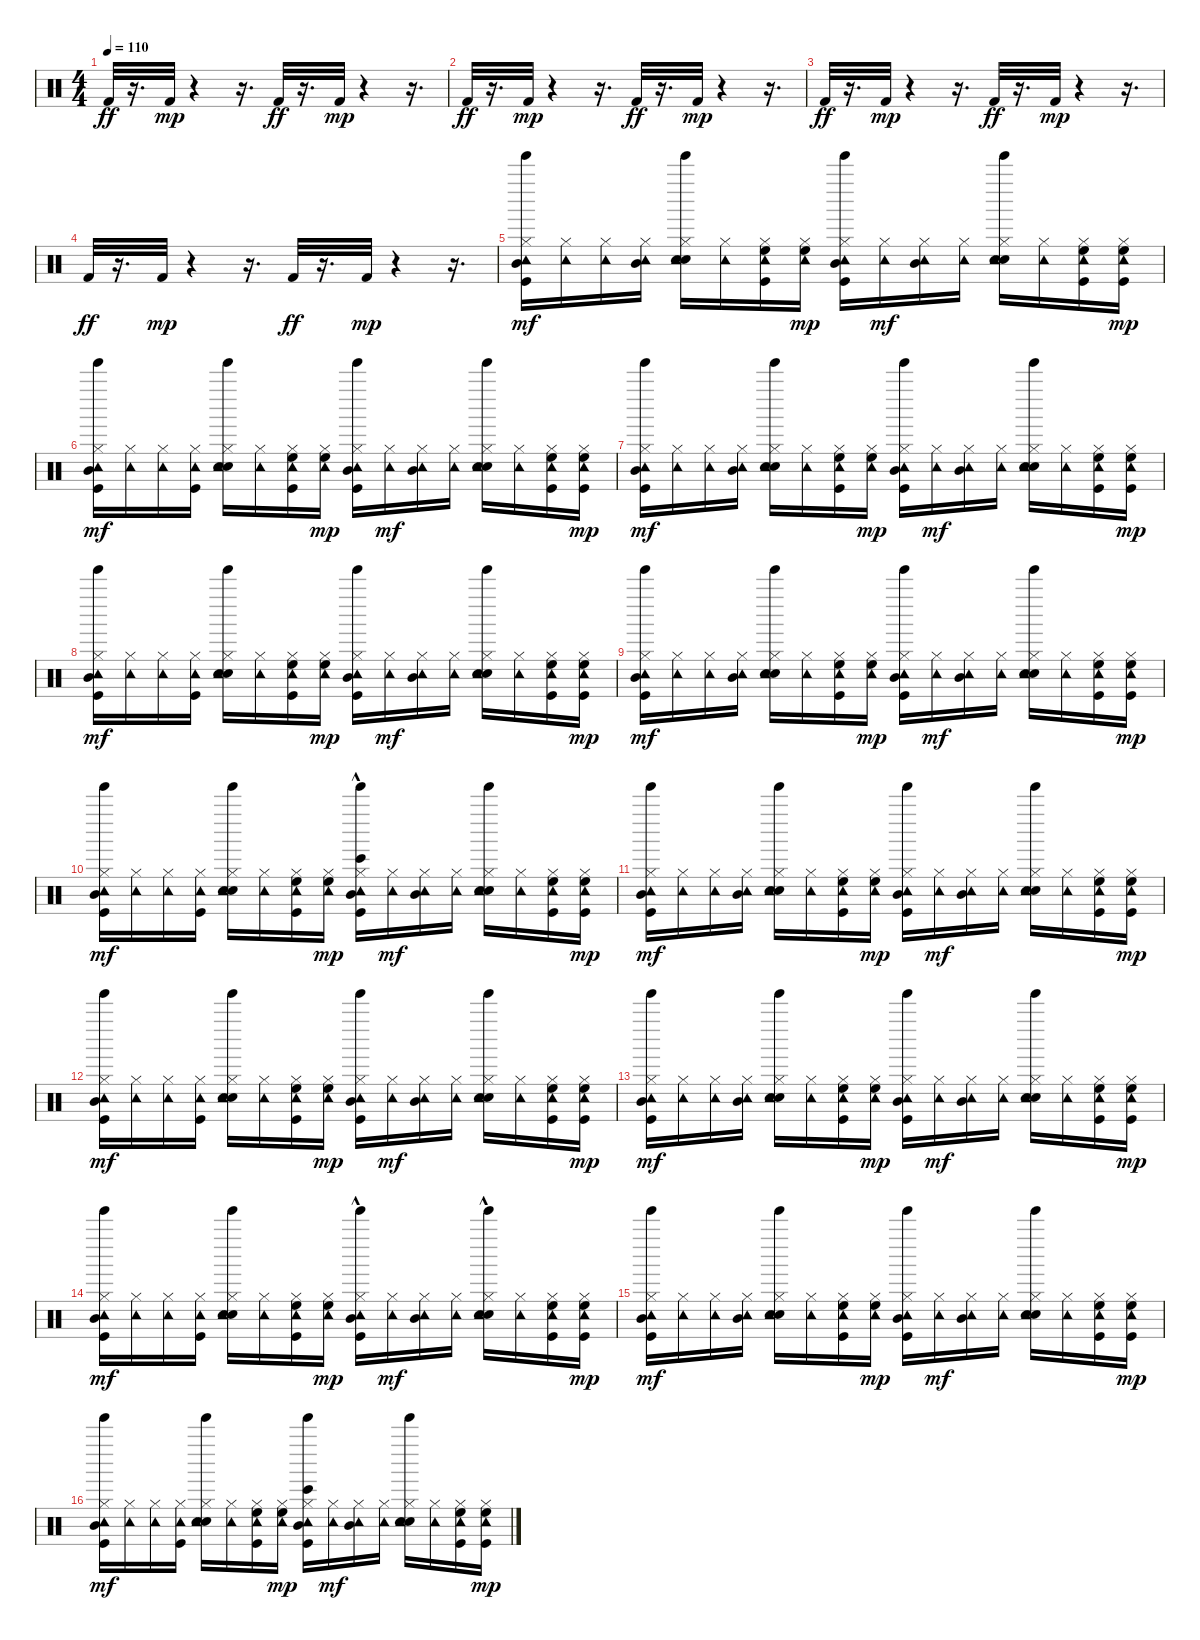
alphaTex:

\track "" {instrument percussion}
\staff {score}
\articulation defaults
\ts (4 4)
\tempo 110
\clef neutral
\ks c "Kick (hit) 2".32{dy ff}
r.16{d} "Kick (hit) 2".32{dy mp} r.4 r.16{d} "Kick (hit) 2".32{dy ff} r.16{d} "Kick (hit) 2".32{dy mp} r.4 r.16{d} |
"Kick (hit) 2".32{dy ff} r.16{d} "Kick (hit) 2".32{dy mp} r.4 r.16{d} "Kick (hit) 2".32{dy ff} r.16{d} "Kick (hit) 2".32{dy mp} r.4 r.16{d} |
"Kick (hit) 2".32{dy ff} r.16{d} "Kick (hit) 2".32{dy mp} r.4 r.16{d} "Kick (hit) 2".32{dy ff} r.16{d} "Kick (hit) 2".32{dy mp} r.4 r.16{d} |
"Kick (hit) 2".32{dy ff} r.16{d} "Kick (hit) 2".32{dy mp} r.4 r.16{d} "Kick (hit) 2".32{dy ff} r.16{d} "Kick (hit) 2".32{dy mp} r.4 r.16{d} |
("Tinkle Bell (hit)" "Kick (hit)" "Hi-Hat (closed)" "Tambourine (hit)" "Mid Tom (hit)").16{dy mf} ("Hi-Hat (closed)" "Tambourine (hit)").16 ("Hi-Hat (closed)" "Tambourine (hit)").16 ("Hi-Hat (closed)" "Tambourine (hit)" "Mid Tom (hit)").16 ("Tinkle Bell (hit)" "Electric Snare (hit)" "Hi-Hat (closed)" "Tambourine (hit)" "Hand Clap (hit)").16 ("Hi-Hat (closed)" "Tambourine (hit)").16 ("Kick (hit)" "Hi-Hat (closed)" "Tambourine (hit)" "High Floor Tom (hit)").16 ("Hi-Hat (closed)" "Tambourine (hit)" "High Floor Tom (hit)").16{dy mp} ("Tinkle Bell (hit)" "Kick (hit)" "Hi-Hat (closed)" "Tambourine (hit)" "Mid Tom (hit)").16 ("Hi-Hat (closed)" "Tambourine (hit)").16{dy mf} ("Hi-Hat (closed)" "Tambourine (hit)" "Mid Tom (hit)").16 ("Hi-Hat (closed)" "Tambourine (hit)").16 ("Tinkle Bell (hit)" "Electric Snare (hit)" "Hi-Hat (closed)" "Tambourine (hit)" "Hand Clap (hit)").16 ("Hi-Hat (closed)" "Tambourine (hit)").16 ("Kick (hit)" "Hi-Hat (closed)" "Tambourine (hit)" "High Floor Tom (hit)").16 ("Kick (hit)" "Hi-Hat (closed)" "Tambourine (hit)" "High Floor Tom (hit)").16{dy mp} |
("Tinkle Bell (hit)" "Kick (hit)" "Hi-Hat (closed)" "Tambourine (hit)" "Mid Tom (hit)").16{dy mf} ("Hi-Hat (closed)" "Tambourine (hit)").16 ("Hi-Hat (closed)" "Tambourine (hit)").16 ("Kick (hit)" "Hi-Hat (closed)" "Tambourine (hit)").16 ("Tinkle Bell (hit)" "Electric Snare (hit)" "Hi-Hat (closed)" "Tambourine (hit)" "Hand Clap (hit)").16 ("Hi-Hat (closed)" "Tambourine (hit)").16 ("Kick (hit)" "Hi-Hat (closed)" "Tambourine (hit)" "High Floor Tom (hit)").16 ("Hi-Hat (closed)" "Tambourine (hit)" "High Floor Tom (hit)").16{dy mp} ("Tinkle Bell (hit)" "Kick (hit)" "Hi-Hat (closed)" "Tambourine (hit)" "Mid Tom (hit)").16 ("Hi-Hat (closed)" "Tambourine (hit)").16{dy mf} ("Hi-Hat (closed)" "Tambourine (hit)" "Mid Tom (hit)").16 ("Hi-Hat (closed)" "Tambourine (hit)").16 ("Tinkle Bell (hit)" "Electric Snare (hit)" "Hi-Hat (closed)" "Tambourine (hit)" "Hand Clap (hit)").16 ("Hi-Hat (closed)" "Tambourine (hit)").16 ("Kick (hit)" "Hi-Hat (closed)" "Tambourine (hit)" "High Floor Tom (hit)").16 ("Kick (hit)" "Hi-Hat (closed)" "Tambourine (hit)" "High Floor Tom (hit)").16{dy mp} |
("Tinkle Bell (hit)" "Kick (hit)" "Hi-Hat (closed)" "Tambourine (hit)" "Mid Tom (hit)").16{dy mf} ("Hi-Hat (closed)" "Tambourine (hit)").16 ("Hi-Hat (closed)" "Tambourine (hit)").16 ("Hi-Hat (closed)" "Tambourine (hit)" "Mid Tom (hit)").16 ("Tinkle Bell (hit)" "Electric Snare (hit)" "Hi-Hat (closed)" "Tambourine (hit)" "Hand Clap (hit)").16 ("Hi-Hat (closed)" "Tambourine (hit)").16 ("Kick (hit)" "Hi-Hat (closed)" "Tambourine (hit)" "High Floor Tom (hit)").16 ("Hi-Hat (closed)" "Tambourine (hit)" "High Floor Tom (hit)").16{dy mp} ("Tinkle Bell (hit)" "Kick (hit)" "Hi-Hat (closed)" "Tambourine (hit)" "Mid Tom (hit)").16 ("Hi-Hat (closed)" "Tambourine (hit)").16{dy mf} ("Hi-Hat (closed)" "Tambourine (hit)" "Mid Tom (hit)").16 ("Hi-Hat (closed)" "Tambourine (hit)").16 ("Tinkle Bell (hit)" "Electric Snare (hit)" "Hi-Hat (closed)" "Tambourine (hit)" "Hand Clap (hit)").16 ("Hi-Hat (closed)" "Tambourine (hit)").16 ("Kick (hit)" "Hi-Hat (closed)" "Tambourine (hit)" "High Floor Tom (hit)").16 ("Kick (hit)" "Hi-Hat (closed)" "Tambourine (hit)" "High Floor Tom (hit)").16{dy mp} |
("Tinkle Bell (hit)" "Kick (hit)" "Hi-Hat (closed)" "Tambourine (hit)" "Mid Tom (hit)").16{dy mf} ("Hi-Hat (closed)" "Tambourine (hit)").16 ("Hi-Hat (closed)" "Tambourine (hit)").16 ("Kick (hit)" "Hi-Hat (closed)" "Tambourine (hit)").16 ("Tinkle Bell (hit)" "Electric Snare (hit)" "Hi-Hat (closed)" "Tambourine (hit)" "Hand Clap (hit)").16 ("Hi-Hat (closed)" "Tambourine (hit)").16 ("Kick (hit)" "Hi-Hat (closed)" "Tambourine (hit)" "High Floor Tom (hit)").16 ("Hi-Hat (closed)" "Tambourine (hit)" "High Floor Tom (hit)").16{dy mp} ("Tinkle Bell (hit)" "Kick (hit)" "Hi-Hat (closed)" "Tambourine (hit)" "Mid Tom (hit)").16 ("Hi-Hat (closed)" "Tambourine (hit)").16{dy mf} ("Hi-Hat (closed)" "Tambourine (hit)" "Mid Tom (hit)").16 ("Hi-Hat (closed)" "Tambourine (hit)").16 ("Tinkle Bell (hit)" "Electric Snare (hit)" "Hi-Hat (closed)" "Tambourine (hit)" "Hand Clap (hit)").16 ("Hi-Hat (closed)" "Tambourine (hit)").16 ("Kick (hit)" "Hi-Hat (closed)" "Tambourine (hit)" "High Floor Tom (hit)").16 ("Kick (hit)" "Hi-Hat (closed)" "Tambourine (hit)" "High Floor Tom (hit)").16{dy mp} |
("Tinkle Bell (hit)" "Kick (hit)" "Hi-Hat (closed)" "Tambourine (hit)" "Mid Tom (hit)").16{dy mf} ("Hi-Hat (closed)" "Tambourine (hit)").16 ("Hi-Hat (closed)" "Tambourine (hit)").16 ("Hi-Hat (closed)" "Tambourine (hit)" "Mid Tom (hit)").16 ("Tinkle Bell (hit)" "Electric Snare (hit)" "Hi-Hat (closed)" "Tambourine (hit)" "Hand Clap (hit)").16 ("Hi-Hat (closed)" "Tambourine (hit)").16 ("Kick (hit)" "Hi-Hat (closed)" "Tambourine (hit)" "High Floor Tom (hit)").16 ("Hi-Hat (closed)" "Tambourine (hit)" "High Floor Tom (hit)").16{dy mp} ("Tinkle Bell (hit)" "Kick (hit)" "Hi-Hat (closed)" "Tambourine (hit)" "Mid Tom (hit)").16 ("Hi-Hat (closed)" "Tambourine (hit)").16{dy mf} ("Hi-Hat (closed)" "Tambourine (hit)" "Mid Tom (hit)").16 ("Hi-Hat (closed)" "Tambourine (hit)").16 ("Tinkle Bell (hit)" "Electric Snare (hit)" "Hi-Hat (closed)" "Tambourine (hit)" "Hand Clap (hit)").16 ("Hi-Hat (closed)" "Tambourine (hit)").16 ("Kick (hit)" "Hi-Hat (closed)" "Tambourine (hit)" "High Floor Tom (hit)").16 ("Kick (hit)" "Hi-Hat (closed)" "Tambourine (hit)" "High Floor Tom (hit)").16{dy mp} |
("Tinkle Bell (hit)" "Kick (hit)" "Hi-Hat (closed)" "Tambourine (hit)" "Mid Tom (hit)").16{dy mf} ("Hi-Hat (closed)" "Tambourine (hit)").16 ("Hi-Hat (closed)" "Tambourine (hit)").16 ("Kick (hit)" "Hi-Hat (closed)" "Tambourine (hit)").16 ("Tinkle Bell (hit)" "Electric Snare (hit)" "Hi-Hat (closed)" "Tambourine (hit)" "Hand Clap (hit)").16 ("Hi-Hat (closed)" "Tambourine (hit)").16 ("Kick (hit)" "Hi-Hat (closed)" "Tambourine (hit)" "High Floor Tom (hit)").16 ("Hi-Hat (closed)" "Tambourine (hit)" "High Floor Tom (hit)").16{dy mp} ("Tinkle Bell (hit)"{hac} "Bongo High (hit)" "Kick (hit)" "Hi-Hat (closed)" "Tambourine (hit)" "Mid Tom (hit)").16 ("Hi-Hat (closed)" "Tambourine (hit)").16{dy mf} ("Hi-Hat (closed)" "Tambourine (hit)" "Mid Tom (hit)").16 ("Hi-Hat (closed)" "Tambourine (hit)").16 ("Tinkle Bell (hit)" "Electric Snare (hit)" "Hi-Hat (closed)" "Tambourine (hit)" "Hand Clap (hit)").16 ("Hi-Hat (closed)" "Tambourine (hit)").16 ("Kick (hit)" "Hi-Hat (closed)" "Tambourine (hit)" "High Floor Tom (hit)").16 ("Kick (hit)" "Hi-Hat (closed)" "Tambourine (hit)" "High Floor Tom (hit)").16{dy mp} |
("Tinkle Bell (hit)" "Kick (hit)" "Hi-Hat (closed)" "Tambourine (hit)" "Mid Tom (hit)").16{dy mf} ("Hi-Hat (closed)" "Tambourine (hit)").16 ("Hi-Hat (closed)" "Tambourine (hit)").16 ("Hi-Hat (closed)" "Tambourine (hit)" "Mid Tom (hit)").16 ("Tinkle Bell (hit)" "Electric Snare (hit)" "Hi-Hat (closed)" "Tambourine (hit)" "Hand Clap (hit)").16 ("Hi-Hat (closed)" "Tambourine (hit)").16 ("Kick (hit)" "Hi-Hat (closed)" "Tambourine (hit)" "High Floor Tom (hit)").16 ("Hi-Hat (closed)" "Tambourine (hit)" "High Floor Tom (hit)").16{dy mp} ("Tinkle Bell (hit)" "Kick (hit)" "Hi-Hat (closed)" "Tambourine (hit)" "Mid Tom (hit)").16 ("Hi-Hat (closed)" "Tambourine (hit)").16{dy mf} ("Hi-Hat (closed)" "Tambourine (hit)" "Mid Tom (hit)").16 ("Hi-Hat (closed)" "Tambourine (hit)").16 ("Tinkle Bell (hit)" "Electric Snare (hit)" "Hi-Hat (closed)" "Tambourine (hit)" "Hand Clap (hit)").16 ("Hi-Hat (closed)" "Tambourine (hit)").16 ("Kick (hit)" "Hi-Hat (closed)" "Tambourine (hit)" "High Floor Tom (hit)").16 ("Kick (hit)" "Hi-Hat (closed)" "Tambourine (hit)" "High Floor Tom (hit)").16{dy mp} |
("Tinkle Bell (hit)" "Kick (hit)" "Hi-Hat (closed)" "Tambourine (hit)" "Mid Tom (hit)").16{dy mf} ("Hi-Hat (closed)" "Tambourine (hit)").16 ("Hi-Hat (closed)" "Tambourine (hit)").16 ("Kick (hit)" "Hi-Hat (closed)" "Tambourine (hit)").16 ("Tinkle Bell (hit)" "Electric Snare (hit)" "Hi-Hat (closed)" "Tambourine (hit)" "Hand Clap (hit)").16 ("Hi-Hat (closed)" "Tambourine (hit)").16 ("Kick (hit)" "Hi-Hat (closed)" "Tambourine (hit)" "High Floor Tom (hit)").16 ("Hi-Hat (closed)" "Tambourine (hit)" "High Floor Tom (hit)").16{dy mp} ("Tinkle Bell (hit)" "Kick (hit)" "Hi-Hat (closed)" "Tambourine (hit)" "Mid Tom (hit)").16 ("Hi-Hat (closed)" "Tambourine (hit)").16{dy mf} ("Hi-Hat (closed)" "Tambourine (hit)" "Mid Tom (hit)").16 ("Hi-Hat (closed)" "Tambourine (hit)").16 ("Tinkle Bell (hit)" "Electric Snare (hit)" "Hi-Hat (closed)" "Tambourine (hit)" "Hand Clap (hit)").16 ("Hi-Hat (closed)" "Tambourine (hit)").16 ("Kick (hit)" "Hi-Hat (closed)" "Tambourine (hit)" "High Floor Tom (hit)").16 ("Kick (hit)" "Hi-Hat (closed)" "Tambourine (hit)" "High Floor Tom (hit)").16{dy mp} |
("Tinkle Bell (hit)" "Kick (hit)" "Hi-Hat (closed)" "Tambourine (hit)" "Mid Tom (hit)").16{dy mf} ("Hi-Hat (closed)" "Tambourine (hit)").16 ("Hi-Hat (closed)" "Tambourine (hit)").16 ("Hi-Hat (closed)" "Tambourine (hit)" "Mid Tom (hit)").16 ("Tinkle Bell (hit)" "Electric Snare (hit)" "Hi-Hat (closed)" "Tambourine (hit)" "Hand Clap (hit)").16 ("Hi-Hat (closed)" "Tambourine (hit)").16 ("Kick (hit)" "Hi-Hat (closed)" "Tambourine (hit)" "High Floor Tom (hit)").16 ("Hi-Hat (closed)" "Tambourine (hit)" "High Floor Tom (hit)").16{dy mp} ("Tinkle Bell (hit)" "Kick (hit)" "Hi-Hat (closed)" "Tambourine (hit)" "Mid Tom (hit)").16 ("Hi-Hat (closed)" "Tambourine (hit)").16{dy mf} ("Hi-Hat (closed)" "Tambourine (hit)" "Mid Tom (hit)").16 ("Hi-Hat (closed)" "Tambourine (hit)").16 ("Tinkle Bell (hit)" "Electric Snare (hit)" "Hi-Hat (closed)" "Tambourine (hit)" "Hand Clap (hit)").16 ("Hi-Hat (closed)" "Tambourine (hit)").16 ("Kick (hit)" "Hi-Hat (closed)" "Tambourine (hit)" "High Floor Tom (hit)").16 ("Kick (hit)" "Hi-Hat (closed)" "Tambourine (hit)" "High Floor Tom (hit)").16{dy mp} |
("Tinkle Bell (hit)" "Kick (hit)" "Hi-Hat (closed)" "Tambourine (hit)" "Mid Tom (hit)").16{dy mf} ("Hi-Hat (closed)" "Tambourine (hit)").16 ("Hi-Hat (closed)" "Tambourine (hit)").16 ("Kick (hit)" "Hi-Hat (closed)" "Tambourine (hit)").16 ("Tinkle Bell (hit)" "Electric Snare (hit)" "Hi-Hat (closed)" "Tambourine (hit)" "Hand Clap (hit)").16 ("Hi-Hat (closed)" "Tambourine (hit)").16 ("Kick (hit)" "Hi-Hat (closed)" "Tambourine (hit)" "High Floor Tom (hit)").16 ("Hi-Hat (closed)" "Tambourine (hit)" "High Floor Tom (hit)").16{dy mp} ("Tinkle Bell (hit)"{hac} "Kick (hit)" "Hi-Hat (closed)" "Tambourine (hit)" "Mid Tom (hit)").16 ("Hi-Hat (closed)" "Tambourine (hit)").16{dy mf} ("Hi-Hat (closed)" "Tambourine (hit)" "Mid Tom (hit)").16 ("Hi-Hat (closed)" "Tambourine (hit)").16 ("Tinkle Bell (hit)"{hac} "Electric Snare (hit)" "Hi-Hat (closed)" "Tambourine (hit)" "Hand Clap (hit)").16 ("Hi-Hat (closed)" "Tambourine (hit)").16 ("Kick (hit)" "Hi-Hat (closed)" "Tambourine (hit)" "High Floor Tom (hit)").16 ("Kick (hit)" "Hi-Hat (closed)" "Tambourine (hit)" "High Floor Tom (hit)").16{dy mp} |
("Tinkle Bell (hit)" "Kick (hit)" "Hi-Hat (closed)" "Tambourine (hit)" "Mid Tom (hit)").16{dy mf} ("Hi-Hat (closed)" "Tambourine (hit)").16 ("Hi-Hat (closed)" "Tambourine (hit)").16 ("Hi-Hat (closed)" "Tambourine (hit)" "Mid Tom (hit)").16 ("Tinkle Bell (hit)" "Electric Snare (hit)" "Hi-Hat (closed)" "Tambourine (hit)" "Hand Clap (hit)").16 ("Hi-Hat (closed)" "Tambourine (hit)").16 ("Kick (hit)" "Hi-Hat (closed)" "Tambourine (hit)" "High Floor Tom (hit)").16 ("Hi-Hat (closed)" "Tambourine (hit)" "High Floor Tom (hit)").16{dy mp} ("Tinkle Bell (hit)" "Kick (hit)" "Hi-Hat (closed)" "Tambourine (hit)" "Mid Tom (hit)").16 ("Hi-Hat (closed)" "Tambourine (hit)").16{dy mf} ("Hi-Hat (closed)" "Tambourine (hit)" "Mid Tom (hit)").16 ("Hi-Hat (closed)" "Tambourine (hit)").16 ("Tinkle Bell (hit)" "Electric Snare (hit)" "Hi-Hat (closed)" "Tambourine (hit)" "Hand Clap (hit)").16 ("Hi-Hat (closed)" "Tambourine (hit)").16 ("Kick (hit)" "Hi-Hat (closed)" "Tambourine (hit)" "High Floor Tom (hit)").16 ("Kick (hit)" "Hi-Hat (closed)" "Tambourine (hit)" "High Floor Tom (hit)").16{dy mp} |
("Tinkle Bell (hit)" "Kick (hit)" "Hi-Hat (closed)" "Tambourine (hit)" "Mid Tom (hit)").16{dy mf} ("Hi-Hat (closed)" "Tambourine (hit)").16 ("Hi-Hat (closed)" "Tambourine (hit)").16 ("Kick (hit)" "Hi-Hat (closed)" "Tambourine (hit)").16 ("Tinkle Bell (hit)" "Electric Snare (hit)" "Hi-Hat (closed)" "Tambourine (hit)" "Hand Clap (hit)").16 ("Hi-Hat (closed)" "Tambourine (hit)").16 ("Kick (hit)" "Hi-Hat (closed)" "Tambourine (hit)" "High Floor Tom (hit)").16 ("Hi-Hat (closed)" "Tambourine (hit)" "High Floor Tom (hit)").16{dy mp} ("Tinkle Bell (hit)" "Bongo High (hit)" "Kick (hit)" "Hi-Hat (closed)" "Tambourine (hit)" "Mid Tom (hit)").16 ("Hi-Hat (closed)" "Tambourine (hit)").16{dy mf} ("Hi-Hat (closed)" "Tambourine (hit)" "Mid Tom (hit)").16 ("Hi-Hat (closed)" "Tambourine (hit)").16 ("Tinkle Bell (hit)" "Electric Snare (hit)" "Hi-Hat (closed)" "Tambourine (hit)" "Hand Clap (hit)").16 ("Hi-Hat (closed)" "Tambourine (hit)").16 ("Kick (hit)" "Hi-Hat (closed)" "Tambourine (hit)" "High Floor Tom (hit)").16 ("Kick (hit)" "Hi-Hat (closed)" "Tambourine (hit)" "High Floor Tom (hit)").16{dy mp}
